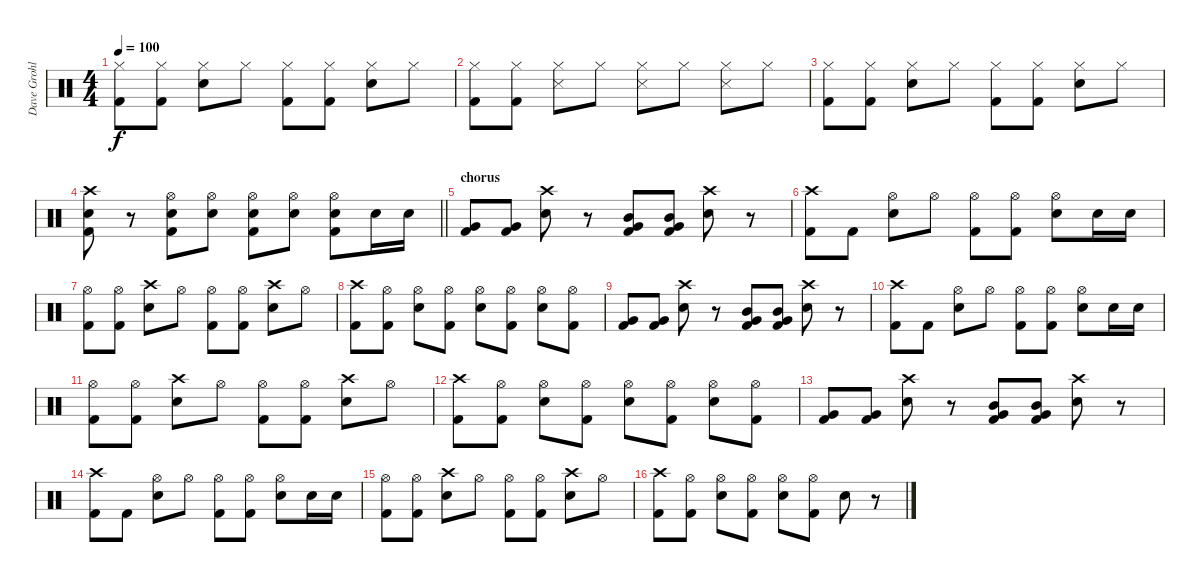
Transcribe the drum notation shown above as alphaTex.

\track ("Dave Grohl" "Dave Grohl") {instrument percussion}
\staff {score}
\articulation defaults
\ts (4 4)
\tempo 100
\clef neutral
\ks c
("Hi-Hat (closed)" "Kick (hit) 2").8{dy f} ("Hi-Hat (closed)" "Kick (hit) 2").8 ("Hi-Hat (closed)" "Snare (hit) 2").8 "Hi-Hat (closed)".8 ("Hi-Hat (closed)" "Kick (hit) 2").8 ("Hi-Hat (closed)" "Kick (hit) 2").8 ("Hi-Hat (closed)" "Snare (hit) 2").8 "Hi-Hat (closed)".8 |
("Hi-Hat (closed)" "Kick (hit) 2").8 ("Hi-Hat (closed)" "Kick (hit) 2").8 ("Hi-Hat (closed)" "Snare (side stick) 3").8 "Hi-Hat (closed)".8 ("Hi-Hat (closed)" "Snare (side stick) 3").8 "Hi-Hat (closed)".8 ("Hi-Hat (closed)" "Snare (side stick) 3").8 "Hi-Hat (closed)".8 |
("Hi-Hat (closed)" "Kick (hit) 2").8 ("Hi-Hat (closed)" "Kick (hit) 2").8 ("Hi-Hat (closed)" "Snare (hit) 2").8 "Hi-Hat (closed)".8 ("Hi-Hat (closed)" "Kick (hit) 2").8 ("Hi-Hat (closed)" "Kick (hit) 2").8 ("Hi-Hat (closed)" "Snare (hit) 2").8 "Hi-Hat (closed)".8 |
\barLineRight lightlight
("Crash high (hit)" "Snare (hit) 2" "Kick (hit) 2").8 r.8 ("Snare (hit) 2" "Hi-Hat (open)" "Kick (hit) 2").8 ("Snare (hit) 2" "Hi-Hat (open)").8 ("Snare (hit) 2" "Hi-Hat (open)" "Kick (hit) 2").8 ("Snare (hit) 2" "Hi-Hat (open)").8 ("Snare (hit) 2" "Hi-Hat (open)" "Kick (hit) 2").8 "Snare (hit) 2".16 "Snare (hit) 2".16 |
\section ("" "chorus")
("Very Low Tom (hit)" "Kick (hit) 2").8 ("Very Low Tom (hit)" "Kick (hit) 2").8 ("Crash high (hit)" "Snare (hit) 2").8 r.8 ("Mid Tom (hit)" "Very Low Tom (hit)" "Kick (hit) 2").8 ("Mid Tom (hit)" "Very Low Tom (hit)" "Kick (hit) 2").8 ("Crash high (hit)" "Snare (hit) 2").8 r.8 |
("Crash high (hit)" "Kick (hit) 2").8 "Kick (hit) 2".8 ("Hi-Hat (open)" "Snare (hit) 2").8 "Hi-Hat (open)".8 ("Hi-Hat (open)" "Kick (hit) 2").8 ("Hi-Hat (open)" "Kick (hit) 2").8 ("Hi-Hat (open)" "Snare (hit) 2").8 "Snare (hit) 2".16 "Snare (hit) 2".16 |
("Hi-Hat (open)" "Kick (hit) 2").8 ("Hi-Hat (open)" "Kick (hit) 2").8 ("Crash high (hit)" "Snare (hit) 2").8 "Hi-Hat (open)".8 ("Hi-Hat (open)" "Kick (hit) 2").8 ("Hi-Hat (open)" "Kick (hit) 2").8 ("Crash high (hit)" "Snare (hit) 2").8 "Hi-Hat (open)".8 |
("Crash high (hit)" "Kick (hit) 2").8 ("Hi-Hat (open)" "Kick (hit) 2").8 ("Hi-Hat (open)" "Snare (hit) 2").8 ("Hi-Hat (open)" "Kick (hit) 2").8 ("Hi-Hat (open)" "Snare (hit) 2").8 ("Hi-Hat (open)" "Kick (hit) 2").8 ("Hi-Hat (open)" "Snare (hit) 2").8 ("Hi-Hat (open)" "Kick (hit) 2").8 |
("Very Low Tom (hit)" "Kick (hit) 2").8 ("Very Low Tom (hit)" "Kick (hit) 2").8 ("Crash high (hit)" "Snare (hit) 2").8 r.8 ("Mid Tom (hit)" "Very Low Tom (hit)" "Kick (hit) 2").8 ("Mid Tom (hit)" "Very Low Tom (hit)" "Kick (hit) 2").8 ("Crash high (hit)" "Snare (hit) 2").8 r.8 |
("Crash high (hit)" "Kick (hit) 2").8 "Kick (hit) 2".8 ("Hi-Hat (open)" "Snare (hit) 2").8 "Hi-Hat (open)".8 ("Hi-Hat (open)" "Kick (hit) 2").8 ("Hi-Hat (open)" "Kick (hit) 2").8 ("Hi-Hat (open)" "Snare (hit) 2").8 "Snare (hit) 2".16 "Snare (hit) 2".16 |
("Hi-Hat (open)" "Kick (hit) 2").8 ("Hi-Hat (open)" "Kick (hit) 2").8 ("Crash high (hit)" "Snare (hit) 2").8 "Hi-Hat (open)".8 ("Hi-Hat (open)" "Kick (hit) 2").8 ("Hi-Hat (open)" "Kick (hit) 2").8 ("Crash high (hit)" "Snare (hit) 2").8 "Hi-Hat (open)".8 |
("Crash high (hit)" "Kick (hit) 2").8 ("Hi-Hat (open)" "Kick (hit) 2").8 ("Hi-Hat (open)" "Snare (hit) 2").8 ("Hi-Hat (open)" "Kick (hit) 2").8 ("Hi-Hat (open)" "Snare (hit) 2").8 ("Hi-Hat (open)" "Kick (hit) 2").8 ("Hi-Hat (open)" "Snare (hit) 2").8 ("Hi-Hat (open)" "Kick (hit) 2").8 |
("Very Low Tom (hit)" "Kick (hit) 2").8 ("Very Low Tom (hit)" "Kick (hit) 2").8 ("Crash high (hit)" "Snare (hit) 2").8 r.8 ("Mid Tom (hit)" "Very Low Tom (hit)" "Kick (hit) 2").8 ("Mid Tom (hit)" "Very Low Tom (hit)" "Kick (hit) 2").8 ("Crash high (hit)" "Snare (hit) 2").8 r.8 |
("Crash high (hit)" "Kick (hit) 2").8 "Kick (hit) 2".8 ("Hi-Hat (open)" "Snare (hit) 2").8 "Hi-Hat (open)".8 ("Hi-Hat (open)" "Kick (hit) 2").8 ("Hi-Hat (open)" "Kick (hit) 2").8 ("Hi-Hat (open)" "Snare (hit) 2").8 "Snare (hit) 2".16 "Snare (hit) 2".16 |
("Hi-Hat (open)" "Kick (hit) 2").8 ("Hi-Hat (open)" "Kick (hit) 2").8 ("Crash high (hit)" "Snare (hit) 2").8 "Hi-Hat (open)".8 ("Hi-Hat (open)" "Kick (hit) 2").8 ("Hi-Hat (open)" "Kick (hit) 2").8 ("Crash high (hit)" "Snare (hit) 2").8 "Hi-Hat (open)".8 |
("Crash high (hit)" "Kick (hit) 2").8 ("Hi-Hat (open)" "Kick (hit) 2").8 ("Hi-Hat (open)" "Snare (hit) 2").8 ("Hi-Hat (open)" "Kick (hit) 2").8 ("Hi-Hat (open)" "Snare (hit) 2").8 ("Hi-Hat (open)" "Kick (hit) 2").8 "Snare (hit) 2".8 r.8
